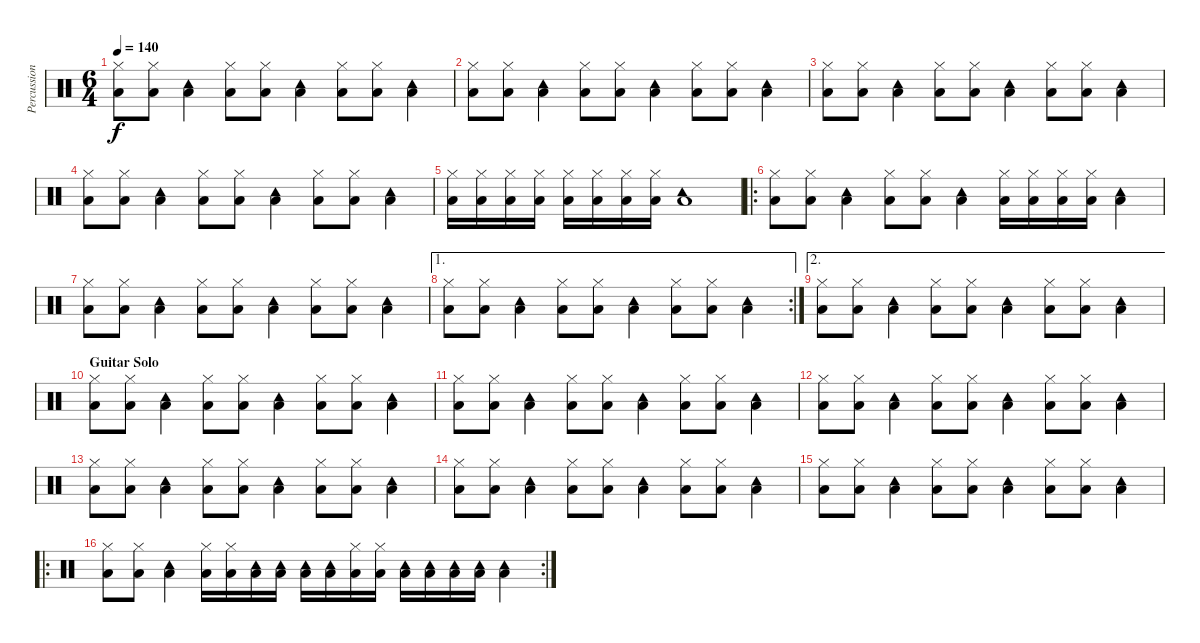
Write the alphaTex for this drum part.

\track ("Percussion" "Percussion") {instrument percussion}
\staff {score}
\articulation defaults
\ts (6 4)
\tempo 140
\clef neutral
\ks c
("Low Floor Tom (hit)" "Hi-Hat (closed)").8{dy f} ("Low Floor Tom (hit)" "Hi-Hat (closed)").8 ("Low Floor Tom (hit)" "Tambourine (hit)").4 ("Low Floor Tom (hit)" "Hi-Hat (closed)").8 ("Low Floor Tom (hit)" "Hi-Hat (closed)").8 ("Low Floor Tom (hit)" "Tambourine (hit)").4 ("Low Floor Tom (hit)" "Hi-Hat (closed)").8 ("Low Floor Tom (hit)" "Hi-Hat (closed)").8 ("Low Floor Tom (hit)" "Tambourine (hit)").4 |
("Low Floor Tom (hit)" "Hi-Hat (closed)").8 ("Low Floor Tom (hit)" "Hi-Hat (closed)").8 ("Low Floor Tom (hit)" "Tambourine (hit)").4 ("Low Floor Tom (hit)" "Hi-Hat (closed)").8 ("Low Floor Tom (hit)" "Hi-Hat (closed)").8 ("Low Floor Tom (hit)" "Tambourine (hit)").4 ("Low Floor Tom (hit)" "Hi-Hat (closed)").8 ("Low Floor Tom (hit)" "Hi-Hat (closed)").8 ("Low Floor Tom (hit)" "Tambourine (hit)").4 |
("Low Floor Tom (hit)" "Hi-Hat (closed)").8 ("Low Floor Tom (hit)" "Hi-Hat (closed)").8 ("Low Floor Tom (hit)" "Tambourine (hit)").4 ("Low Floor Tom (hit)" "Hi-Hat (closed)").8 ("Low Floor Tom (hit)" "Hi-Hat (closed)").8 ("Low Floor Tom (hit)" "Tambourine (hit)").4 ("Low Floor Tom (hit)" "Hi-Hat (closed)").8 ("Low Floor Tom (hit)" "Hi-Hat (closed)").8 ("Low Floor Tom (hit)" "Tambourine (hit)").4 |
("Low Floor Tom (hit)" "Hi-Hat (closed)").8 ("Low Floor Tom (hit)" "Hi-Hat (closed)").8 ("Low Floor Tom (hit)" "Tambourine (hit)").4 ("Low Floor Tom (hit)" "Hi-Hat (closed)").8 ("Low Floor Tom (hit)" "Hi-Hat (closed)").8 ("Low Floor Tom (hit)" "Tambourine (hit)").4 ("Low Floor Tom (hit)" "Hi-Hat (closed)").8 ("Low Floor Tom (hit)" "Hi-Hat (closed)").8 ("Low Floor Tom (hit)" "Tambourine (hit)").4 |
("Low Floor Tom (hit)" "Hi-Hat (closed)").16 ("Low Floor Tom (hit)" "Hi-Hat (closed)").16 ("Low Floor Tom (hit)" "Hi-Hat (closed)").16 ("Low Floor Tom (hit)" "Hi-Hat (closed)").16 ("Low Floor Tom (hit)" "Hi-Hat (closed)").16 ("Low Floor Tom (hit)" "Hi-Hat (closed)").16 ("Low Floor Tom (hit)" "Hi-Hat (closed)").16 ("Low Floor Tom (hit)" "Hi-Hat (closed)").16 ("Low Floor Tom (hit)" "Tambourine (hit)").1 |
\ro
("Low Floor Tom (hit)" "Hi-Hat (closed)").8 ("Low Floor Tom (hit)" "Hi-Hat (closed)").8 ("Low Floor Tom (hit)" "Tambourine (hit)").4 ("Low Floor Tom (hit)" "Hi-Hat (closed)").8 ("Low Floor Tom (hit)" "Hi-Hat (closed)").8 ("Low Floor Tom (hit)" "Tambourine (hit)").4 ("Low Floor Tom (hit)" "Hi-Hat (closed)").16 ("Low Floor Tom (hit)" "Hi-Hat (closed)").16 ("Low Floor Tom (hit)" "Hi-Hat (closed)").16 ("Low Floor Tom (hit)" "Hi-Hat (closed)").16 ("Low Floor Tom (hit)" "Tambourine (hit)").4 |
("Low Floor Tom (hit)" "Hi-Hat (closed)").8 ("Low Floor Tom (hit)" "Hi-Hat (closed)").8 ("Low Floor Tom (hit)" "Tambourine (hit)").4 ("Low Floor Tom (hit)" "Hi-Hat (closed)").8 ("Low Floor Tom (hit)" "Hi-Hat (closed)").8 ("Low Floor Tom (hit)" "Tambourine (hit)").4 ("Low Floor Tom (hit)" "Hi-Hat (closed)").8 ("Low Floor Tom (hit)" "Hi-Hat (closed)").8 ("Low Floor Tom (hit)" "Tambourine (hit)").4 |
\ae 1
\rc 2
("Low Floor Tom (hit)" "Hi-Hat (closed)").8 ("Low Floor Tom (hit)" "Hi-Hat (closed)").8 ("Low Floor Tom (hit)" "Tambourine (hit)").4 ("Low Floor Tom (hit)" "Hi-Hat (closed)").8 ("Low Floor Tom (hit)" "Hi-Hat (closed)").8 ("Low Floor Tom (hit)" "Tambourine (hit)").4 ("Low Floor Tom (hit)" "Hi-Hat (closed)").8 ("Low Floor Tom (hit)" "Hi-Hat (closed)").8 ("Low Floor Tom (hit)" "Tambourine (hit)").4 |
\ae 2
("Low Floor Tom (hit)" "Hi-Hat (closed)").8 ("Low Floor Tom (hit)" "Hi-Hat (closed)").8 ("Low Floor Tom (hit)" "Tambourine (hit)").4 ("Low Floor Tom (hit)" "Hi-Hat (closed)").8 ("Low Floor Tom (hit)" "Hi-Hat (closed)").8 ("Low Floor Tom (hit)" "Tambourine (hit)").4 ("Low Floor Tom (hit)" "Hi-Hat (closed)").8 ("Low Floor Tom (hit)" "Hi-Hat (closed)").8 ("Low Floor Tom (hit)" "Tambourine (hit)").4 |
\section ("" "Guitar Solo")
("Low Floor Tom (hit)" "Hi-Hat (closed)").8 ("Low Floor Tom (hit)" "Hi-Hat (closed)").8 ("Low Floor Tom (hit)" "Tambourine (hit)").4 ("Low Floor Tom (hit)" "Hi-Hat (closed)").8 ("Low Floor Tom (hit)" "Hi-Hat (closed)").8 ("Low Floor Tom (hit)" "Tambourine (hit)").4 ("Low Floor Tom (hit)" "Hi-Hat (closed)").8 ("Low Floor Tom (hit)" "Hi-Hat (closed)").8 ("Low Floor Tom (hit)" "Tambourine (hit)").4 |
("Low Floor Tom (hit)" "Hi-Hat (closed)").8 ("Low Floor Tom (hit)" "Hi-Hat (closed)").8 ("Low Floor Tom (hit)" "Tambourine (hit)").4 ("Low Floor Tom (hit)" "Hi-Hat (closed)").8 ("Low Floor Tom (hit)" "Hi-Hat (closed)").8 ("Low Floor Tom (hit)" "Tambourine (hit)").4 ("Low Floor Tom (hit)" "Hi-Hat (closed)").8 ("Low Floor Tom (hit)" "Hi-Hat (closed)").8 ("Low Floor Tom (hit)" "Tambourine (hit)").4 |
("Low Floor Tom (hit)" "Hi-Hat (closed)").8 ("Low Floor Tom (hit)" "Hi-Hat (closed)").8 ("Low Floor Tom (hit)" "Tambourine (hit)").4 ("Low Floor Tom (hit)" "Hi-Hat (closed)").8 ("Low Floor Tom (hit)" "Hi-Hat (closed)").8 ("Low Floor Tom (hit)" "Tambourine (hit)").4 ("Low Floor Tom (hit)" "Hi-Hat (closed)").8 ("Low Floor Tom (hit)" "Hi-Hat (closed)").8 ("Low Floor Tom (hit)" "Tambourine (hit)").4 |
("Low Floor Tom (hit)" "Hi-Hat (closed)").8 ("Low Floor Tom (hit)" "Hi-Hat (closed)").8 ("Low Floor Tom (hit)" "Tambourine (hit)").4 ("Low Floor Tom (hit)" "Hi-Hat (closed)").8 ("Low Floor Tom (hit)" "Hi-Hat (closed)").8 ("Low Floor Tom (hit)" "Tambourine (hit)").4 ("Low Floor Tom (hit)" "Hi-Hat (closed)").8 ("Low Floor Tom (hit)" "Hi-Hat (closed)").8 ("Low Floor Tom (hit)" "Tambourine (hit)").4 |
("Low Floor Tom (hit)" "Hi-Hat (closed)").8 ("Low Floor Tom (hit)" "Hi-Hat (closed)").8 ("Low Floor Tom (hit)" "Tambourine (hit)").4 ("Low Floor Tom (hit)" "Hi-Hat (closed)").8 ("Low Floor Tom (hit)" "Hi-Hat (closed)").8 ("Low Floor Tom (hit)" "Tambourine (hit)").4 ("Low Floor Tom (hit)" "Hi-Hat (closed)").8 ("Low Floor Tom (hit)" "Hi-Hat (closed)").8 ("Low Floor Tom (hit)" "Tambourine (hit)").4 |
("Low Floor Tom (hit)" "Hi-Hat (closed)").8 ("Low Floor Tom (hit)" "Hi-Hat (closed)").8 ("Low Floor Tom (hit)" "Tambourine (hit)").4 ("Low Floor Tom (hit)" "Hi-Hat (closed)").8 ("Low Floor Tom (hit)" "Hi-Hat (closed)").8 ("Low Floor Tom (hit)" "Tambourine (hit)").4 ("Low Floor Tom (hit)" "Hi-Hat (closed)").8 ("Low Floor Tom (hit)" "Hi-Hat (closed)").8 ("Low Floor Tom (hit)" "Tambourine (hit)").4 |
\ro
\rc 2
("Low Floor Tom (hit)" "Hi-Hat (closed)").8 ("Low Floor Tom (hit)" "Hi-Hat (closed)").8 ("Low Floor Tom (hit)" "Tambourine (hit)").4 ("Low Floor Tom (hit)" "Hi-Hat (closed)").16 ("Low Floor Tom (hit)" "Hi-Hat (closed)").16 ("Low Floor Tom (hit)" "Tambourine (hit)").16 ("Low Floor Tom (hit)" "Tambourine (hit)").16 ("Low Floor Tom (hit)" "Tambourine (hit)").16 ("Low Floor Tom (hit)" "Tambourine (hit)").16 ("Low Floor Tom (hit)" "Hi-Hat (closed)").16 ("Low Floor Tom (hit)" "Hi-Hat (closed)").16 ("Low Floor Tom (hit)" "Tambourine (hit)").16 ("Low Floor Tom (hit)" "Tambourine (hit)").16 ("Low Floor Tom (hit)" "Tambourine (hit)").16 ("Low Floor Tom (hit)" "Tambourine (hit)").16 ("Low Floor Tom (hit)" "Tambourine (hit)").4
